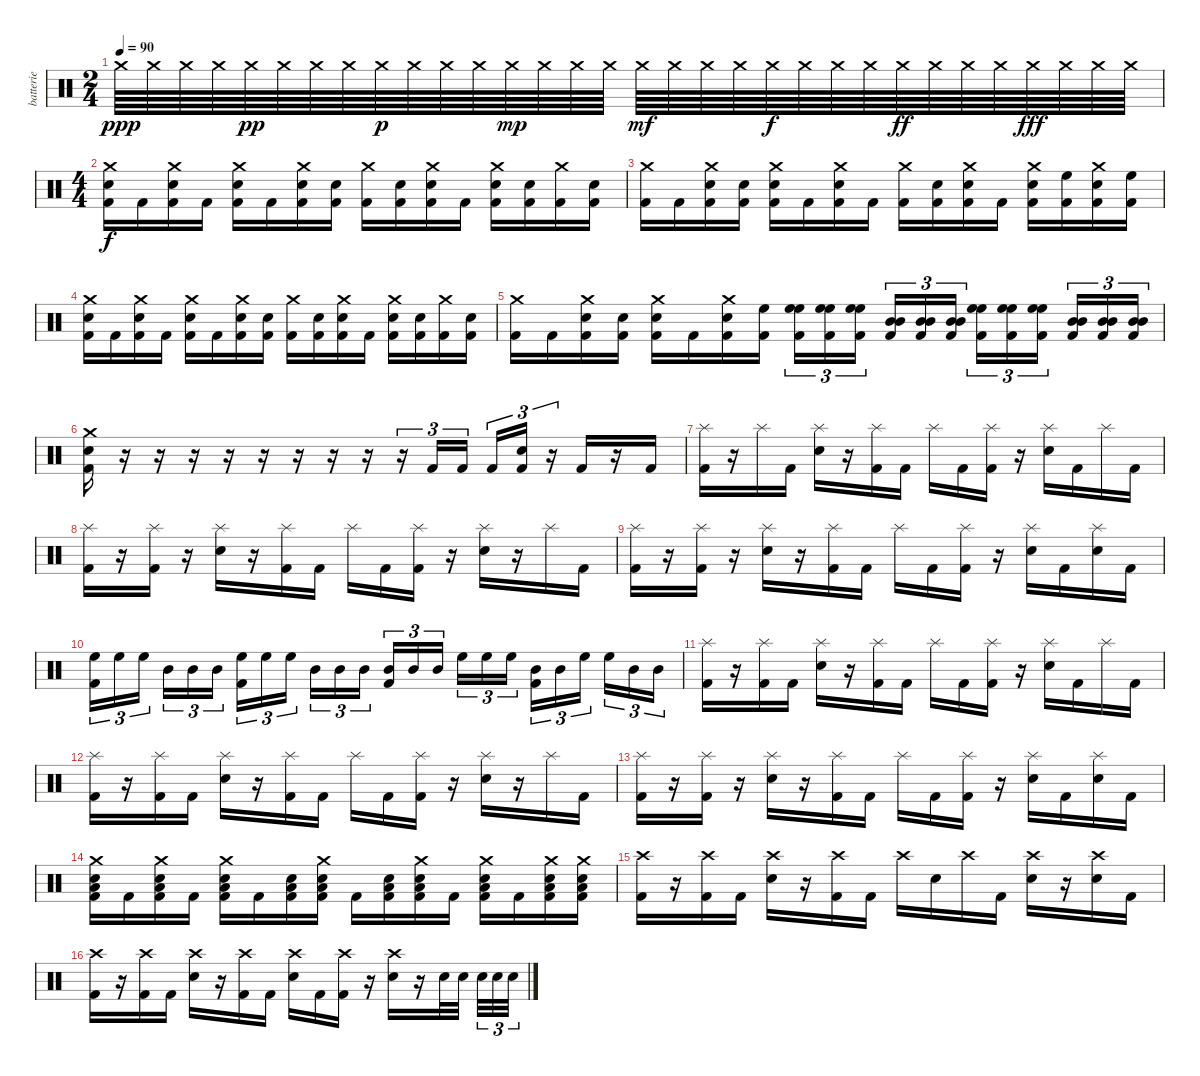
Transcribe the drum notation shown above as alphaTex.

\track ("batterie" "batterie") {instrument percussion}
\staff {score}
\articulation defaults
\ts (2 4)
\tempo 90
\clef neutral
\ks c "Crash medium (hit)".64{dy ppp} "Crash medium (hit)".64 "Crash medium (hit)".64 "Crash medium (hit)".64 "Crash medium (hit)".64{dy pp} "Crash medium (hit)".64 "Crash medium (hit)".64 "Crash medium (hit)".64 "Crash medium (hit)".64{dy p} "Crash medium (hit)".64 "Crash medium (hit)".64 "Crash medium (hit)".64 "Crash medium (hit)".64{dy mp} "Crash medium (hit)".64 "Crash medium (hit)".64 "Crash medium (hit)".64 "Crash medium (hit)".64{dy mf} "Crash medium (hit)".64 "Crash medium (hit)".64 "Crash medium (hit)".64 "Crash medium (hit)".64{dy f} "Crash medium (hit)".64 "Crash medium (hit)".64 "Crash medium (hit)".64 "Crash medium (hit)".64{dy ff} "Crash medium (hit)".64 "Crash medium (hit)".64 "Crash medium (hit)".64 "Crash medium (hit)".64{dy fff} "Crash medium (hit)".64 "Crash medium (hit)".64 "Crash medium (hit)".64
|
\ts (4 4)
("Crash medium (hit)" "Electric Snare (hit)" "Kick (hit) 2").16{dy f} "Kick (hit) 2".16 ("Crash medium (hit)" "Electric Snare (hit)" "Kick (hit) 2").16 "Kick (hit) 2".16 ("Crash medium (hit)" "Electric Snare (hit)" "Kick (hit) 2").16 "Kick (hit) 2".16 ("Crash medium (hit)" "Electric Snare (hit)" "Kick (hit) 2").16 ("Electric Snare (hit)" "Kick (hit) 2").16 ("Crash medium (hit)" "Kick (hit) 2").16 ("Electric Snare (hit)" "Kick (hit) 2").16 ("Crash medium (hit)" "Electric Snare (hit)" "Kick (hit) 2").16 "Kick (hit) 2".16 ("Crash medium (hit)" "Electric Snare (hit)" "Kick (hit) 2").16 ("Electric Snare (hit)" "Kick (hit) 2").16 ("Crash medium (hit)" "Kick (hit) 2").16 ("Electric Snare (hit)" "Kick (hit) 2").16 |
("Crash medium (hit)" "Kick (hit) 2").16 "Kick (hit) 2".16 ("Crash medium (hit)" "Electric Snare (hit)" "Kick (hit) 2").16 ("Electric Snare (hit)" "Kick (hit) 2").16 ("Crash medium (hit)" "Electric Snare (hit)" "Kick (hit) 2").16 "Kick (hit) 2".16 ("Crash medium (hit)" "Electric Snare (hit)" "Kick (hit) 2").16 "Kick (hit) 2".16 ("Crash medium (hit)" "Kick (hit) 2").16 ("Electric Snare (hit)" "Kick (hit) 2").16 ("Crash medium (hit)" "Electric Snare (hit)" "Kick (hit) 2").16 "Kick (hit) 2".16 ("Crash medium (hit)" "Electric Snare (hit)" "Kick (hit) 2").16 ("High Floor Tom (hit)" "Kick (hit) 2").16 ("Crash medium (hit)" "Electric Snare (hit)" "Kick (hit) 2").16 ("High Floor Tom (hit)" "Kick (hit) 2").16 |
("Crash medium (hit)" "Electric Snare (hit)" "Kick (hit) 2").16 "Kick (hit) 2".16 ("Crash medium (hit)" "Electric Snare (hit)" "Kick (hit) 2").16 "Kick (hit) 2".16 ("Crash medium (hit)" "Electric Snare (hit)" "Kick (hit) 2").16 "Kick (hit) 2".16 ("Crash medium (hit)" "Electric Snare (hit)" "Kick (hit) 2").16 ("Electric Snare (hit)" "Kick (hit) 2").16 ("Crash medium (hit)" "Kick (hit) 2").16 ("Electric Snare (hit)" "Kick (hit) 2").16 ("Crash medium (hit)" "Electric Snare (hit)" "Kick (hit) 2").16 "Kick (hit) 2".16 ("Crash medium (hit)" "Electric Snare (hit)" "Kick (hit) 2").16 ("Electric Snare (hit)" "Kick (hit) 2").16 ("Crash medium (hit)" "Kick (hit) 2").16 ("Electric Snare (hit)" "Kick (hit) 2").16 |
("Crash medium (hit)" "Kick (hit) 2").16 "Kick (hit) 2".16 ("Crash medium (hit)" "Electric Snare (hit)" "Kick (hit) 2").16 ("Electric Snare (hit)" "Kick (hit) 2").16 ("Crash medium (hit)" "Electric Snare (hit)" "Kick (hit) 2").16 "Kick (hit) 2".16 ("Crash medium (hit)" "Electric Snare (hit)" "Kick (hit) 2").16 ("High Floor Tom (hit)" "Kick (hit) 2").16 ("High Floor Tom (hit)" "High Floor Tom (hit)" "Kick (hit) 2").16{tu (3 2)} ("High Floor Tom (hit)" "High Floor Tom (hit)" "Kick (hit) 2").16{tu (3 2)} ("High Floor Tom (hit)" "High Floor Tom (hit)" "Kick (hit) 2").16{tu (3 2)} ("Mid Tom (hit)" "Mid Tom (hit)" "Kick (hit) 2").16{tu (3 2)} ("Mid Tom (hit)" "Mid Tom (hit)" "Kick (hit) 2").16{tu (3 2)} ("Mid Tom (hit)" "Mid Tom (hit)" "Kick (hit) 2").16{tu (3 2)} ("High Floor Tom (hit)" "High Floor Tom (hit)" "Kick (hit) 2").16{tu (3 2)} ("High Floor Tom (hit)" "High Floor Tom (hit)" "Kick (hit) 2").16{tu (3 2)} ("High Floor Tom (hit)" "High Floor Tom (hit)" "Kick (hit) 2").16{tu (3 2)} ("Mid Tom (hit)" "Mid Tom (hit)" "Kick (hit) 2").16{tu (3 2)} ("Mid Tom (hit)" "Mid Tom (hit)" "Kick (hit) 2").16{tu (3 2)} ("Mid Tom (hit)" "Mid Tom (hit)" "Kick (hit) 2").16{tu (3 2)} |
("Crash medium (hit)" "Electric Snare (hit)" "Kick (hit) 2").16 r.16 r.16 r.16 r.16 r.16 r.16 r.16 r.16 r.16{tu (3 2)} "Kick (hit) 2".16{tu (3 2)} "Kick (hit) 2".16{tu (3 2)} "Kick (hit) 2".16{tu (3 2)} ("Electric Snare (hit)" "Kick (hit) 2").16{tu (3 2)} r.16{tu (3 2)} "Kick (hit) 2".16 r.16 "Kick (hit) 2".16 |
("Splash (hit)" "Kick (hit) 2").16 r.16 "Splash (hit)".16 "Kick (hit) 2".16 ("Splash (hit)" "Electric Snare (hit)").16 r.16 ("Splash (hit)" "Kick (hit) 2").16 "Kick (hit) 2".16 "Splash (hit)".16 "Kick (hit) 2".16 ("Splash (hit)" "Kick (hit) 2").16 r.16 ("Splash (hit)" "Electric Snare (hit)").16 "Kick (hit) 2".16 "Splash (hit)".16 "Kick (hit) 2".16 |
("Splash (hit)" "Kick (hit) 2").16 r.16 ("Splash (hit)" "Kick (hit) 2").16 r.16 ("Splash (hit)" "Electric Snare (hit)").16 r.16 ("Splash (hit)" "Kick (hit) 2").16 "Kick (hit) 2".16 "Splash (hit)".16 "Kick (hit) 2".16 ("Splash (hit)" "Kick (hit) 2").16 r.16 ("Splash (hit)" "Electric Snare (hit)").16 r.16 "Splash (hit)".16 "Kick (hit) 2".16 |
("Splash (hit)" "Kick (hit) 2").16 r.16 ("Splash (hit)" "Kick (hit) 2").16 r.16 ("Splash (hit)" "Electric Snare (hit)").16 r.16 ("Splash (hit)" "Kick (hit) 2").16 "Kick (hit) 2".16 "Splash (hit)".16 "Kick (hit) 2".16 ("Splash (hit)" "Kick (hit) 2").16 r.16 ("Splash (hit)" "Electric Snare (hit)").16 "Kick (hit) 2".16 ("Splash (hit)" "Electric Snare (hit)").16 "Kick (hit) 2".16 |
("High Floor Tom (hit)" "Kick (hit) 2").16{tu (3 2)} "High Floor Tom (hit)".16{tu (3 2)} "High Floor Tom (hit)".16{tu (3 2)} "Mid Tom (hit)".16{tu (3 2)} "Mid Tom (hit)".16{tu (3 2)} "Mid Tom (hit)".16{tu (3 2)} ("High Floor Tom (hit)" "Kick (hit) 2").16{tu (3 2)} "High Floor Tom (hit)".16{tu (3 2)} "High Floor Tom (hit)".16{tu (3 2)} "Mid Tom (hit)".16{tu (3 2)} "Mid Tom (hit)".16{tu (3 2)} "Mid Tom (hit)".16{tu (3 2)} ("Mid Tom (hit)" "Kick (hit) 2").16{tu (3 2)} "Mid Tom (hit)".16{tu (3 2)} "Mid Tom (hit)".16{tu (3 2)} "High Floor Tom (hit)".16{tu (3 2)} "High Floor Tom (hit)".16{tu (3 2)} "High Floor Tom (hit)".16{tu (3 2)} ("Mid Tom (hit)" "Kick (hit) 2").16{tu (3 2)} "Mid Tom (hit)".16{tu (3 2)} "High Floor Tom (hit)".16{tu (3 2)} "High Floor Tom (hit)".16{tu (3 2)} "Mid Tom (hit)".16{tu (3 2)} "Mid Tom (hit)".16{tu (3 2)} |
("Splash (hit)" "Kick (hit) 2").16 r.16 ("Splash (hit)" "Kick (hit) 2").16 "Kick (hit) 2".16 ("Splash (hit)" "Electric Snare (hit)").16 r.16 ("Splash (hit)" "Kick (hit) 2").16 "Kick (hit) 2".16 "Splash (hit)".16 "Kick (hit) 2".16 ("Splash (hit)" "Kick (hit) 2").16 r.16 ("Splash (hit)" "Electric Snare (hit)").16 "Kick (hit) 2".16 "Splash (hit)".16 "Kick (hit) 2".16 |
("Splash (hit)" "Kick (hit) 2").16 r.16 ("Splash (hit)" "Kick (hit) 2").16 "Kick (hit) 2".16 ("Splash (hit)" "Electric Snare (hit)").16 r.16 ("Splash (hit)" "Kick (hit) 2").16 "Kick (hit) 2".16 "Splash (hit)".16 "Kick (hit) 2".16 ("Splash (hit)" "Kick (hit) 2").16 r.16 ("Splash (hit)" "Electric Snare (hit)").16 r.16 "Splash (hit)".16 "Kick (hit) 2".16 |
("Splash (hit)" "Kick (hit) 2").16 r.16 ("Splash (hit)" "Kick (hit) 2").16 r.16 ("Splash (hit)" "Electric Snare (hit)").16 r.16 ("Splash (hit)" "Kick (hit) 2").16 "Kick (hit) 2".16 "Splash (hit)".16 "Kick (hit) 2".16 ("Splash (hit)" "Kick (hit) 2").16 r.16 ("Splash (hit)" "Electric Snare (hit)").16 "Kick (hit) 2".16 ("Splash (hit)" "Electric Snare (hit)").16 "Kick (hit) 2".16 |
("Crash medium (hit)" "Electric Snare (hit)" "Low Floor Tom (hit)" "Kick (hit) 2").16 "Kick (hit) 2".16 ("Crash medium (hit)" "Electric Snare (hit)" "Low Floor Tom (hit)" "Kick (hit) 2").16 "Kick (hit) 2".16 ("Crash medium (hit)" "Electric Snare (hit)" "Low Floor Tom (hit)" "Kick (hit) 2").16 "Kick (hit) 2".16 ("Electric Snare (hit)" "Low Floor Tom (hit)" "Kick (hit) 2").16 ("Crash medium (hit)" "Electric Snare (hit)" "Low Floor Tom (hit)" "Kick (hit) 2").16 "Kick (hit) 2".16 ("Electric Snare (hit)" "Low Floor Tom (hit)" "Kick (hit) 2").16 ("Crash medium (hit)" "Electric Snare (hit)" "Low Floor Tom (hit)" "Kick (hit) 2").16 "Kick (hit) 2".16 ("Crash medium (hit)" "Electric Snare (hit)" "Low Floor Tom (hit)" "Kick (hit) 2").16 "Kick (hit) 2".16 ("Crash medium (hit)" "Electric Snare (hit)" "Low Floor Tom (hit)" "Kick (hit) 2").16 ("Crash medium (hit)" "Electric Snare (hit)" "Low Floor Tom (hit)" "Kick (hit) 2").16 |
("Crash high (hit)" "Kick (hit) 2").16 r.16 ("Crash high (hit)" "Kick (hit) 2").16 "Kick (hit) 2".16 ("Crash high (hit)" "Electric Snare (hit)").16 r.16 ("Crash high (hit)" "Kick (hit) 2").16 "Kick (hit) 2".16 "Crash high (hit)".16 "Electric Snare (hit)".16 "Crash high (hit)".16 "Kick (hit) 2".16 ("Crash high (hit)" "Electric Snare (hit)").16 r.16 ("Crash high (hit)" "Electric Snare (hit)").16 "Kick (hit) 2".16 |
("Crash high (hit)" "Kick (hit) 2").16 r.16 ("Crash high (hit)" "Kick (hit) 2").16 "Kick (hit) 2".16 ("Crash high (hit)" "Electric Snare (hit)").16 r.16 ("Crash high (hit)" "Kick (hit) 2").16 "Kick (hit) 2".16 ("Crash high (hit)" "Electric Snare (hit)").16 "Kick (hit) 2".16 ("Crash high (hit)" "Kick (hit) 2").16 r.16 ("Crash high (hit)" "Electric Snare (hit)").16 r.16 "Snare (hit) 2".32 "Snare (hit) 2".32 "Snare (hit) 2".32{tu (3 2)} "Electric Snare (hit)".32{tu (3 2)} "Electric Snare (hit)".32{tu (3 2)}
